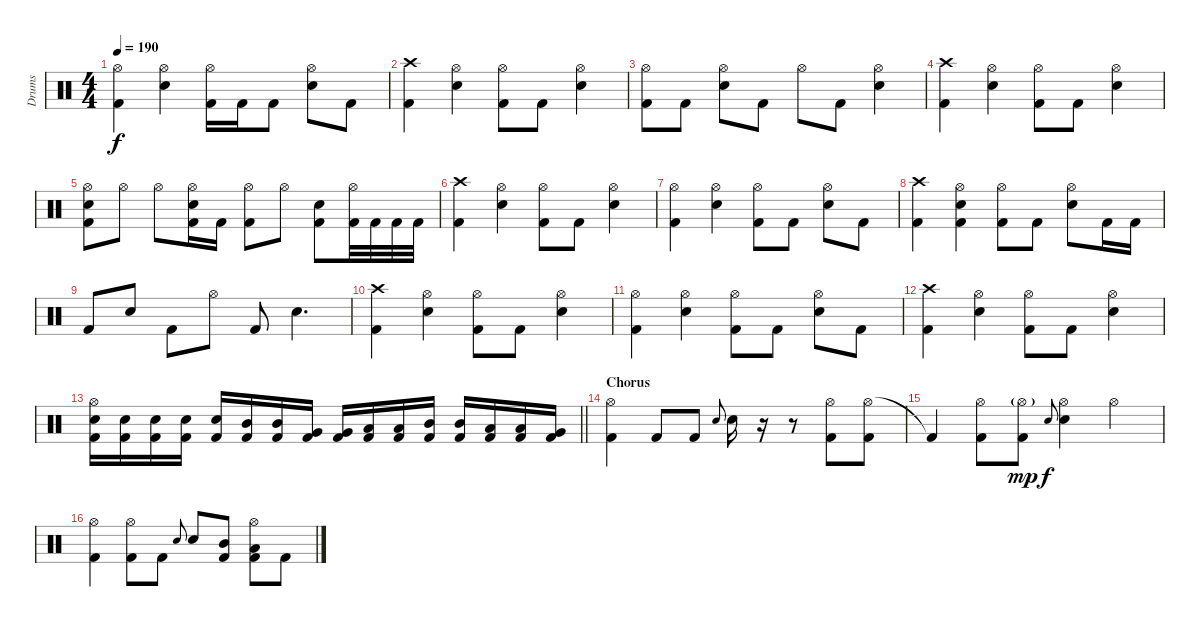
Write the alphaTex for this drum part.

\track ("Drums" "Drums") {instrument percussion}
\staff {score}
\articulation defaults
\ts (4 4)
\tempo 190
\clef neutral
\ks c
("Hi-Hat (open)" "Kick (hit) 2").4{dy f} ("Hi-Hat (open)" "Snare (hit) 2").4 ("Hi-Hat (open)" "Kick (hit) 2").16 "Kick (hit) 2".16 "Kick (hit) 2".8 ("Hi-Hat (open)" "Snare (hit) 2").8 "Kick (hit) 2".8 |
("Crash high (hit)" "Kick (hit) 2").4 ("Hi-Hat (open)" "Snare (hit) 2").4 ("Hi-Hat (open)" "Kick (hit) 2").8 "Kick (hit) 2".8 ("Hi-Hat (open)" "Snare (hit) 2").4 |
("Hi-Hat (open)" "Kick (hit) 2").8 "Kick (hit) 2".8 ("Hi-Hat (open)" "Snare (hit) 2").8 "Kick (hit) 2".8 "Hi-Hat (open)".8 "Kick (hit) 2".8 ("Hi-Hat (open)" "Snare (hit) 2").4 |
("Crash high (hit)" "Kick (hit) 2").4 ("Hi-Hat (open)" "Snare (hit) 2").4 ("Hi-Hat (open)" "Kick (hit) 2").8 "Kick (hit) 2".8 ("Hi-Hat (open)" "Snare (hit) 2").4 |
("Hi-Hat (open)" "Snare (hit) 2" "Kick (hit) 2").8 "Hi-Hat (open)".8 "Hi-Hat (open)".8 ("Hi-Hat (open)" "Snare (hit) 2" "Kick (hit) 2").16 "Kick (hit) 2".16 ("Hi-Hat (open)" "Kick (hit) 2").8 "Hi-Hat (open)".8 ("Snare (hit) 2" "Kick (hit) 2").8 ("Hi-Hat (open)" "Kick (hit) 2").32 "Kick (hit) 2".32 "Kick (hit) 2".32 "Kick (hit) 2".32 |
("Crash high (hit)" "Kick (hit) 2").4 ("Hi-Hat (open)" "Snare (hit) 2").4 ("Hi-Hat (open)" "Kick (hit) 2").8 "Kick (hit) 2".8 ("Hi-Hat (open)" "Snare (hit) 2").4 |
("Hi-Hat (open)" "Kick (hit) 2").4 ("Hi-Hat (open)" "Snare (hit) 2").4 ("Hi-Hat (open)" "Kick (hit) 2").8 "Kick (hit) 2".8 ("Hi-Hat (open)" "Snare (hit) 2").8 "Kick (hit) 2".8 |
("Crash high (hit)" "Kick (hit) 2").4 ("Hi-Hat (open)" "Snare (hit) 2" "Kick (hit) 2").4 ("Hi-Hat (open)" "Kick (hit) 2").8 "Kick (hit) 2".8 ("Hi-Hat (open)" "Snare (hit) 2").8 "Kick (hit) 2".16 "Kick (hit) 2".16 |
"Kick (hit) 2".8 "Snare (hit) 2".8 "Kick (hit) 2".8 "Hi-Hat (open)".8 "Kick (hit) 2".8 "Snare (hit) 2".4{d} |
("Crash high (hit)" "Kick (hit) 2").4 ("Hi-Hat (open)" "Snare (hit) 2").4 ("Hi-Hat (open)" "Kick (hit) 2").8 "Kick (hit) 2".8 ("Hi-Hat (open)" "Snare (hit) 2").4 |
("Hi-Hat (open)" "Kick (hit) 2").4 ("Hi-Hat (open)" "Snare (hit) 2").4 ("Hi-Hat (open)" "Kick (hit) 2").8 "Kick (hit) 2".8 ("Hi-Hat (open)" "Snare (hit) 2").8 "Kick (hit) 2".8 |
("Crash high (hit)" "Kick (hit) 2").4 ("Hi-Hat (open)" "Snare (hit) 2").4 ("Hi-Hat (open)" "Kick (hit) 2").8 "Kick (hit) 2".8 ("Hi-Hat (open)" "Snare (hit) 2").4 |
\barLineRight lightlight
("Hi-Hat (open)" "Snare (hit) 2" "Kick (hit) 2").16 ("Snare (hit) 2" "Kick (hit) 2").16 ("Snare (hit) 2" "Kick (hit) 2").16 ("Snare (hit) 2" "Kick (hit) 2").16 ("Snare (hit) 2" "Kick (hit) 2").16 ("Mid Tom (hit)" "Kick (hit) 2").16 ("Mid Tom (hit)" "Kick (hit) 2").16 ("Very Low Tom (hit)" "Kick (hit) 2").16 ("Very Low Tom (hit)" "Kick (hit) 2").16 ("Low Tom (hit)" "Kick (hit) 2").16 ("Low Tom (hit)" "Kick (hit) 2").16 ("Mid Tom (hit)" "Kick (hit) 2").16 ("Mid Tom (hit)" "Kick (hit) 2").16 ("Low Tom (hit)" "Kick (hit) 2").16 ("Low Tom (hit)" "Kick (hit) 2").16 ("Very Low Tom (hit)" "Kick (hit) 2").16 |
\section ("" "Chorus")
("Hi-Hat (open)" "Kick (hit) 2").4 "Kick (hit) 2".8 "Kick (hit) 2".8 "Snare (hit) 2".8{gr onbeat} "Snare (hit) 2".16 r.16 r.8 ("Hi-Hat (open)" "Kick (hit) 2").8 ("Hi-Hat (open)" "Kick (hit) 2").8 |
"Kick (hit) 2"{t}.4 ("Hi-Hat (open)" "Kick (hit) 2").8 ("Hi-Hat (open)"{g} "Kick (hit) 2").8{dy mp} "Snare (hit) 2".8{gr onbeat dy f} ("Hi-Hat (open)" "Snare (hit) 2").4 "Hi-Hat (open)".4 |
("Hi-Hat (open)" "Kick (hit) 2").4 ("Hi-Hat (open)" "Kick (hit) 2").8 "Kick (hit) 2".8 "Snare (hit) 2".8{gr onbeat} "Snare (hit) 2".8 ("Mid Tom (hit)" "Kick (hit) 2").8 ("Hi-Hat (open)" "Low Tom (hit)" "Kick (hit) 2").8 "Kick (hit) 2".8
